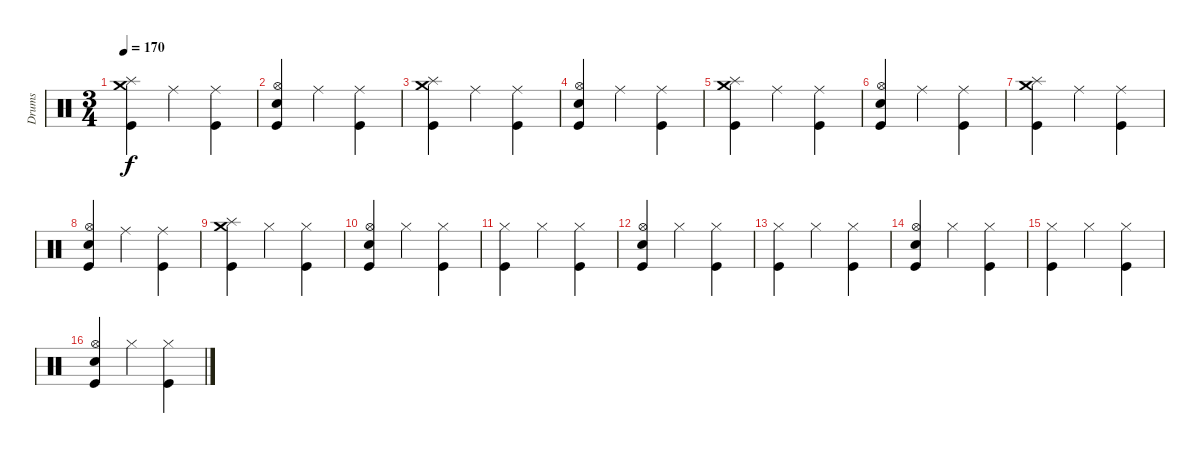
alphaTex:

\track ("Drums" "Drums") {instrument percussion}
\staff {score}
\articulation defaults
\ts (3 4)
\tempo 170
\clef neutral
\ks c
("Splash (hit)" "Crash medium (hit)" "Kick (hit)").4{dy f} "Ride (middle)".4 ("Ride (middle)" "Kick (hit)").4 |
("Hi-Hat (open)" "Electric Snare (hit)" "Kick (hit)").4 "Ride (middle)".4 ("Ride (middle)" "Kick (hit)").4 |
("Splash (hit)" "Crash medium (hit)" "Kick (hit)").4 "Ride (middle)".4 ("Ride (middle)" "Kick (hit)").4 |
("Hi-Hat (open)" "Electric Snare (hit)" "Kick (hit)").4 "Ride (middle)".4 ("Ride (middle)" "Kick (hit)").4 |
("Splash (hit)" "Crash medium (hit)" "Kick (hit)").4 "Ride (middle)".4 ("Ride (middle)" "Kick (hit)").4 |
("Hi-Hat (open)" "Electric Snare (hit)" "Kick (hit)").4 "Ride (middle)".4 ("Ride (middle)" "Kick (hit)").4 |
("Splash (hit)" "Crash medium (hit)" "Kick (hit)").4 "Ride (middle)".4 ("Ride (middle)" "Kick (hit)").4 |
("Hi-Hat (open)" "Electric Snare (hit)" "Kick (hit)").4 "Ride (middle)".4 ("Ride (middle)" "Kick (hit)").4 |
("Splash (hit)" "Crash medium (hit)" "Kick (hit)").4 "Hi-Hat (closed)".4 ("Hi-Hat (closed)" "Kick (hit)").4 |
("Hi-Hat (open)" "Electric Snare (hit)" "Kick (hit)").4 "Hi-Hat (closed)".4 ("Hi-Hat (closed)" "Kick (hit)").4 |
("Hi-Hat (closed)" "Kick (hit)").4 "Hi-Hat (closed)".4 ("Hi-Hat (closed)" "Kick (hit)").4 |
("Hi-Hat (open)" "Electric Snare (hit)" "Kick (hit)").4 "Hi-Hat (closed)".4 ("Hi-Hat (closed)" "Kick (hit)").4 |
("Hi-Hat (closed)" "Kick (hit)").4 "Hi-Hat (closed)".4 ("Hi-Hat (closed)" "Kick (hit)").4 |
("Hi-Hat (open)" "Electric Snare (hit)" "Kick (hit)").4 "Hi-Hat (closed)".4 ("Hi-Hat (closed)" "Kick (hit)").4 |
("Hi-Hat (closed)" "Kick (hit)").4 "Hi-Hat (closed)".4 ("Hi-Hat (closed)" "Kick (hit)").4 |
("Hi-Hat (open)" "Electric Snare (hit)" "Kick (hit)").4 "Hi-Hat (closed)".4 ("Hi-Hat (closed)" "Kick (hit)").4
